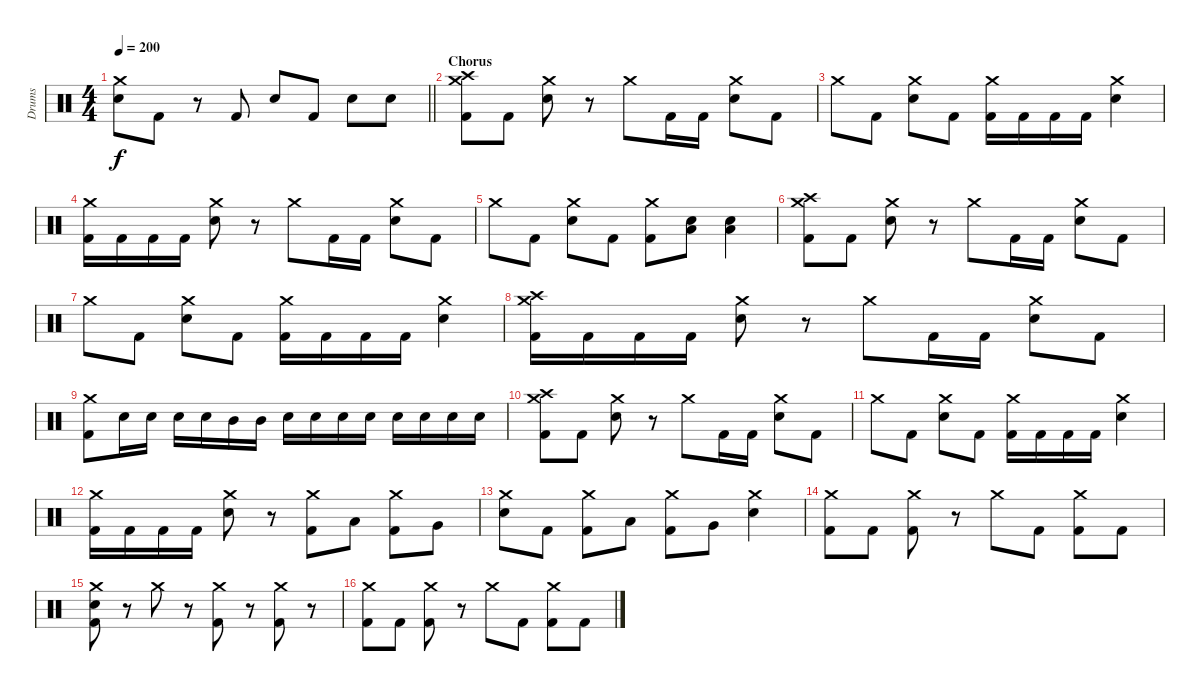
\track ("Drums" "Drums") {instrument percussion}
\staff {score}
\articulation defaults
\ts (4 4)
\tempo 200
\clef neutral
\barLineRight lightlight
\ks c
("Crash medium (hit)" "Electric Snare (hit)").8{dy f} "Kick (hit) 2".8 r.8 "Kick (hit) 2".8 "Electric Snare (hit)".8 "Kick (hit) 2".8 "Electric Snare (hit)".8 "Electric Snare (hit)".8 |
\section ("" "Chorus")
("Crash medium (hit)" "Crash high (hit)" "Kick (hit) 2").8 "Kick (hit) 2".8 ("Crash medium (hit)" "Electric Snare (hit)").8 r.8 "Crash medium (hit)".8 "Kick (hit) 2".16 "Kick (hit) 2".16 ("Crash medium (hit)" "Electric Snare (hit)").8 "Kick (hit) 2".8 |
"Crash medium (hit)".8 "Kick (hit) 2".8 ("Crash medium (hit)" "Electric Snare (hit)").8 "Kick (hit) 2".8 ("Crash medium (hit)" "Kick (hit) 2").16 "Kick (hit) 2".16 "Kick (hit) 2".16 "Kick (hit) 2".16 ("Crash medium (hit)" "Electric Snare (hit)").4 |
("Crash medium (hit)" "Kick (hit) 2").16 "Kick (hit) 2".16 "Kick (hit) 2".16 "Kick (hit) 2".16 ("Crash medium (hit)" "Electric Snare (hit)").8 r.8 "Crash medium (hit)".8 "Kick (hit) 2".16 "Kick (hit) 2".16 ("Crash medium (hit)" "Electric Snare (hit)").8 "Kick (hit) 2".8 |
"Crash medium (hit)".8 "Kick (hit) 2".8 ("Crash medium (hit)" "Electric Snare (hit)").8 "Kick (hit) 2".8 ("Crash medium (hit)" "Kick (hit) 2").8 ("Low Floor Tom (hit)" "Electric Snare (hit)").8 ("Low Floor Tom (hit)" "Electric Snare (hit)").4 |
("Crash medium (hit)" "Crash high (hit)" "Kick (hit) 2").8 "Kick (hit) 2".8 ("Crash medium (hit)" "Electric Snare (hit)").8 r.8 "Crash medium (hit)".8 "Kick (hit) 2".16 "Kick (hit) 2".16 ("Crash medium (hit)" "Electric Snare (hit)").8 "Kick (hit) 2".8 |
"Crash medium (hit)".8 "Kick (hit) 2".8 ("Crash medium (hit)" "Electric Snare (hit)").8 "Kick (hit) 2".8 ("Crash medium (hit)" "Kick (hit) 2").16 "Kick (hit) 2".16 "Kick (hit) 2".16 "Kick (hit) 2".16 ("Crash medium (hit)" "Electric Snare (hit)").4 |
("Crash medium (hit)" "Crash high (hit)" "Kick (hit) 2").16 "Kick (hit) 2".16 "Kick (hit) 2".16 "Kick (hit) 2".16 ("Crash medium (hit)" "Electric Snare (hit)").8 r.8 "Crash medium (hit)".8 "Kick (hit) 2".16 "Kick (hit) 2".16 ("Crash medium (hit)" "Electric Snare (hit)").8 "Kick (hit) 2".8 |
("Crash medium (hit)" "Kick (hit) 2").8 "Electric Snare (hit)".16 "Electric Snare (hit)".16 "Electric Snare (hit)".16 "Electric Snare (hit)".16 "Mid Tom (hit)".16 "Mid Tom (hit)".16 "Electric Snare (hit)".16 "Electric Snare (hit)".16 "Electric Snare (hit)".16 "Electric Snare (hit)".16 "Electric Snare (hit)".16 "Electric Snare (hit)".16 "Electric Snare (hit)".16 "Electric Snare (hit)".16 |
("Crash medium (hit)" "Crash high (hit)" "Kick (hit) 2").8 "Kick (hit) 2".8 ("Crash medium (hit)" "Electric Snare (hit)").8 r.8 "Crash medium (hit)".8 "Kick (hit) 2".16 "Kick (hit) 2".16 ("Crash medium (hit)" "Electric Snare (hit)").8 "Kick (hit) 2".8 |
"Crash medium (hit)".8 "Kick (hit) 2".8 ("Crash medium (hit)" "Electric Snare (hit)").8 "Kick (hit) 2".8 ("Crash medium (hit)" "Kick (hit) 2").16 "Kick (hit) 2".16 "Kick (hit) 2".16 "Kick (hit) 2".16 ("Crash medium (hit)" "Electric Snare (hit)").4 |
("Crash medium (hit)" "Kick (hit) 2").16 "Kick (hit) 2".16 "Kick (hit) 2".16 "Kick (hit) 2".16 ("Crash medium (hit)" "Electric Snare (hit)").8 r.8 ("Crash medium (hit)" "Kick (hit) 2").8 "Low Tom (hit)".8 ("Crash medium (hit)" "Kick (hit) 2").8 "Very Low Tom (hit)".8 |
("Crash medium (hit)" "Electric Snare (hit)").8 "Kick (hit) 2".8 ("Crash medium (hit)" "Kick (hit) 2").8 "Low Tom (hit)".8 ("Crash medium (hit)" "Kick (hit) 2").8 "Very Low Tom (hit)".8 ("Crash medium (hit)" "Electric Snare (hit)").4 |
("Crash medium (hit)" "Kick (hit) 2").8 "Kick (hit) 2".8 ("Crash medium (hit)" "Kick (hit) 2").8 r.8 "Crash medium (hit)".8 "Kick (hit) 2".8 ("Crash medium (hit)" "Kick (hit) 2").8 "Kick (hit) 2".8 |
("Crash medium (hit)" "Electric Snare (hit)" "Kick (hit) 2").8 r.8 "Crash medium (hit)".8 r.8 ("Crash medium (hit)" "Kick (hit) 2").8 r.8 ("Crash medium (hit)" "Kick (hit) 2").8 r.8 |
("Crash medium (hit)" "Kick (hit) 2").8 "Kick (hit) 2".8 ("Crash medium (hit)" "Kick (hit) 2").8 r.8 "Crash medium (hit)".8 "Kick (hit) 2".8 ("Crash medium (hit)" "Kick (hit) 2").8 "Kick (hit) 2".8
